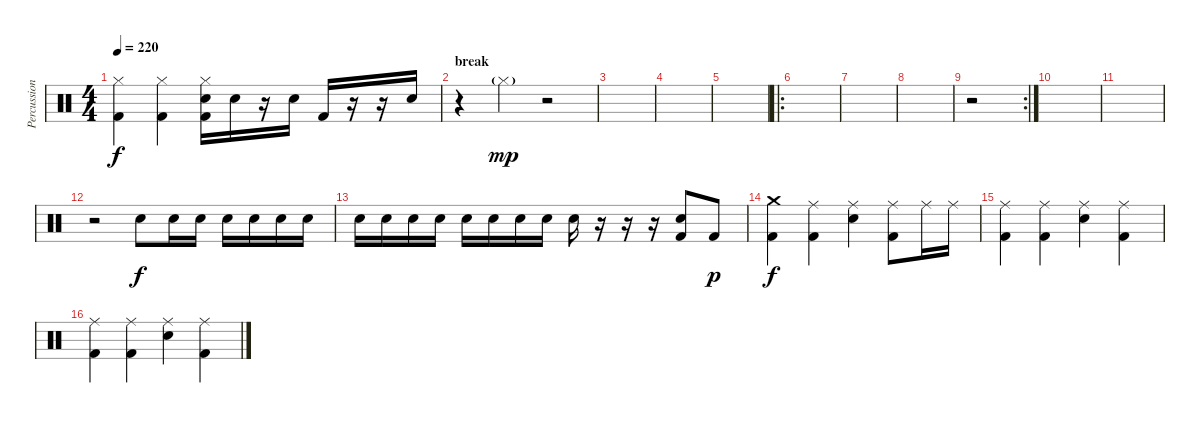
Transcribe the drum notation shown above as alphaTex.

\track ("Percussions" "Percussion") {instrument percussion}
\staff {score}
\articulation defaults
\ts (4 4)
\tempo 220
\clef neutral
\ks c
("Hi-Hat (closed)" "Kick (hit) 2").4{dy f} ("Hi-Hat (closed)" "Kick (hit) 2").4 ("Hi-Hat (closed)" "Snare (hit) 2" "Kick (hit) 2").16 "Snare (hit) 2".16 r.16 "Snare (hit) 2".16 "Kick (hit) 2".16 r.16 r.16 "Snare (hit) 2".16 |
\section ("" "break")
r.4 "Hi-Hat (closed)"{g}.4{dy mp} r.2 |
|
|
|
\ro
|
|
|
\rc 2
r.2 |
|
|
r.2{volume 0} "Snare (hit) 2".8{dy f volume 11} "Snare (hit) 2".16 "Snare (hit) 2".16 "Snare (hit) 2".16 "Snare (hit) 2".16 "Snare (hit) 2".16 "Snare (hit) 2".16 |
"Snare (hit) 2".16 "Snare (hit) 2".16 "Snare (hit) 2".16 "Snare (hit) 2".16 "Snare (hit) 2".16 "Snare (hit) 2".16 "Snare (hit) 2".16 "Snare (hit) 2".16 "Snare (hit) 2".16 r.16 r.16 r.16 ("Kick (hit) 2" "Snare (hit) 2").8{volume 15} "Kick (hit) 2".8{dy p} |
("Crash medium (hit)" "Kick (hit) 2").4{dy f} ("Ride (middle)" "Kick (hit) 2").4 ("Snare (hit) 2" "Ride (middle)").4 ("Ride (middle)" "Kick (hit) 2").8 "Ride (middle)".16 "Ride (middle)".16 |
("Ride (middle)" "Kick (hit) 2").4 ("Ride (middle)" "Kick (hit) 2").4 ("Snare (hit) 2" "Ride (middle)").4 ("Ride (middle)" "Kick (hit) 2").4 |
("Ride (middle)" "Kick (hit) 2").4 ("Ride (middle)" "Kick (hit) 2").4 ("Snare (hit) 2" "Ride (middle)").4 ("Ride (middle)" "Kick (hit) 2").4
